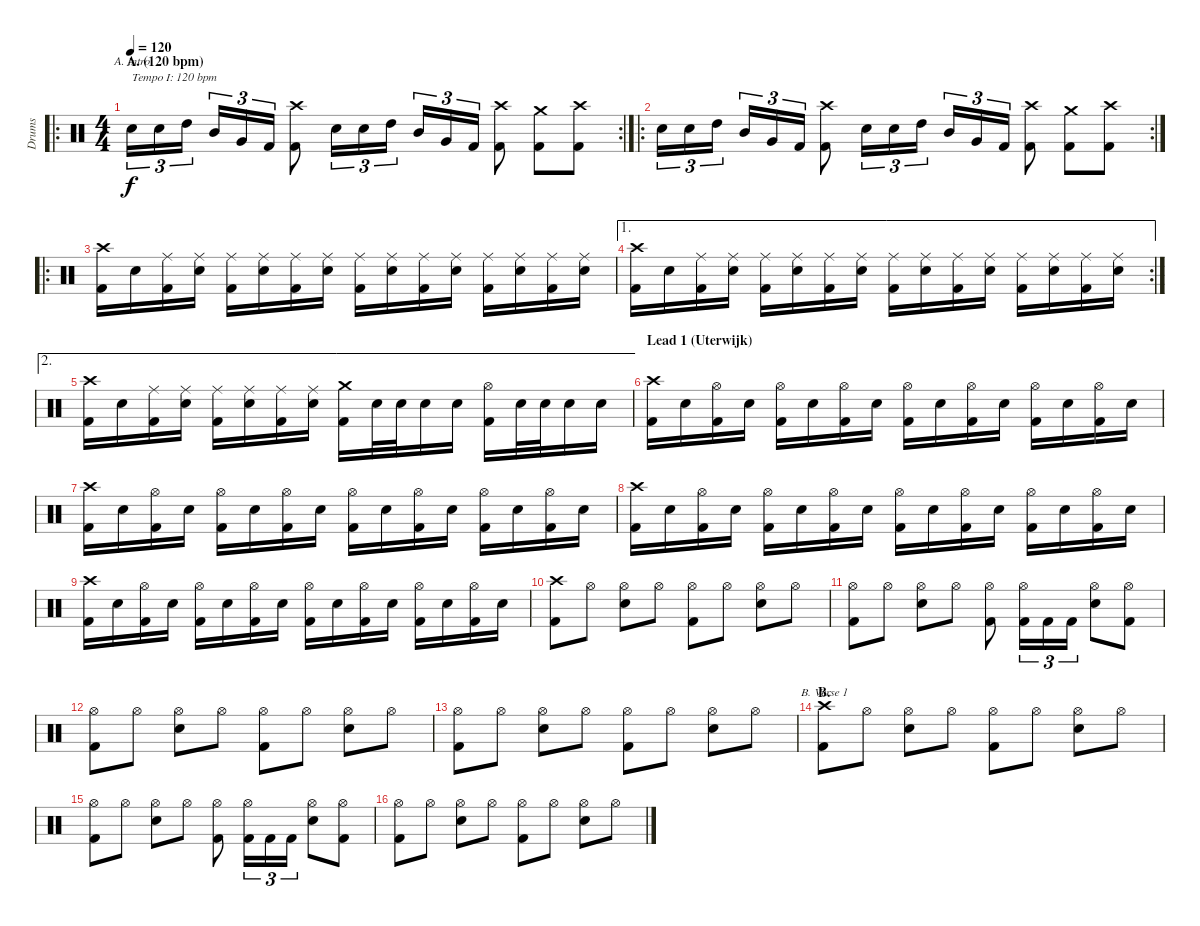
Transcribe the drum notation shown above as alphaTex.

\track ("Drums" "Drums") {instrument percussion}
\staff {score}
\articulation defaults
\chord ("A. Intro") {firstfret 0}
\chord ("B. Verse 1") {firstfret 0}
\ro
\rc 2
\ts (4 4)
\section ("" "A. (120 bpm)")
\tempo 120
\clef neutral
\ks c "Snare (hit) 2".16{tu (3 2) ch "A. Intro" txt "Tempo I: 120 bpm " dy f} "Snare (hit) 2".16{tu (3 2)} "High Tom (hit)".16{tu (3 2)} "Mid Tom (hit)".16{tu (3 2)} "Very Low Tom (hit)".16{tu (3 2)} "Kick (hit) 2".16{tu (3 2)}
("Crash high (hit)" "Kick (hit) 2").8 "Snare (hit) 2".16{tu (3 2)} "Snare (hit) 2".16{tu (3 2)} "High Tom (hit)".16{tu (3 2)} "Mid Tom (hit)".16{tu (3 2)} "Very Low Tom (hit)".16{tu (3 2)} "Kick (hit) 2".16{tu (3 2)} ("Crash high (hit)" "Kick (hit) 2").8 ("Crash medium (hit)" "Kick (hit) 2").8 ("Crash high (hit)" "Kick (hit) 2").8 |
\ro
\rc 2 "Snare (hit) 2".16{tu (3 2)} "Snare (hit) 2".16{tu (3 2)} "High Tom (hit)".16{tu (3 2)} "Mid Tom (hit)".16{tu (3 2)} "Very Low Tom (hit)".16{tu (3 2)} "Kick (hit) 2".16{tu (3 2)}
("Crash high (hit)" "Kick (hit) 2").8 "Snare (hit) 2".16{tu (3 2)} "Snare (hit) 2".16{tu (3 2)} "High Tom (hit)".16{tu (3 2)} "Mid Tom (hit)".16{tu (3 2)} "Very Low Tom (hit)".16{tu (3 2)} "Kick (hit) 2".16{tu (3 2)} ("Crash high (hit)" "Kick (hit) 2").8 ("Crash medium (hit)" "Kick (hit) 2").8 ("Crash high (hit)" "Kick (hit) 2").8 |
\ro
("Crash high (hit)" "Kick (hit) 2").16 "Snare (hit) 2".16 ("Ride (middle)" "Kick (hit) 2").16 ("Ride (middle)" "Snare (hit) 2").16 ("Ride (middle)" "Kick (hit) 2").16 ("Ride (middle)" "Snare (hit) 2").16 ("Ride (middle)" "Kick (hit) 2").16 ("Ride (middle)" "Snare (hit) 2").16 ("Ride (middle)" "Kick (hit) 2").16 ("Ride (middle)" "Snare (hit) 2").16 ("Ride (middle)" "Kick (hit) 2").16 ("Ride (middle)" "Snare (hit) 2").16 ("Ride (middle)" "Kick (hit) 2").16 ("Ride (middle)" "Snare (hit) 2").16 ("Ride (middle)" "Kick (hit) 2").16 ("Ride (middle)" "Snare (hit) 2").16 |
\ae 1
\rc 2
("Crash high (hit)" "Kick (hit) 2").16 "Snare (hit) 2".16 ("Ride (middle)" "Kick (hit) 2").16 ("Ride (middle)" "Snare (hit) 2").16 ("Ride (middle)" "Kick (hit) 2").16 ("Ride (middle)" "Snare (hit) 2").16 ("Ride (middle)" "Kick (hit) 2").16 ("Ride (middle)" "Snare (hit) 2").16 ("Ride (middle)" "Kick (hit) 2").16 ("Ride (middle)" "Snare (hit) 2").16 ("Ride (middle)" "Kick (hit) 2").16 ("Ride (middle)" "Snare (hit) 2").16 ("Ride (middle)" "Kick (hit) 2").16 ("Ride (middle)" "Snare (hit) 2").16 ("Ride (middle)" "Kick (hit) 2").16 ("Ride (middle)" "Snare (hit) 2").16 |
\ae 2
("Crash high (hit)" "Kick (hit) 2").16 "Snare (hit) 2".16 ("Ride (middle)" "Kick (hit) 2").16 ("Ride (middle)" "Snare (hit) 2").16 ("Ride (middle)" "Kick (hit) 2").16 ("Ride (middle)" "Snare (hit) 2").16 ("Ride (middle)" "Kick (hit) 2").16 ("Ride (middle)" "Snare (hit) 2").16 ("Crash medium (hit)" "Kick (hit) 2").16 "Snare (hit) 2".32 "Snare (hit) 2".32 "Snare (hit) 2".16 "Snare (hit) 2".16 ("Hi-Hat (open)" "Kick (hit) 2").16 "Snare (hit) 2".32 "Snare (hit) 2".32 "Snare (hit) 2".16 "Snare (hit) 2".16 |
\section ("" "Lead 1 (Uterwijk)")
("Crash high (hit)" "Kick (hit) 2").16 "Snare (hit) 2".16 ("Hi-Hat (open)" "Kick (hit) 2").16 "Snare (hit) 2".16 ("Hi-Hat (open)" "Kick (hit) 2").16 "Snare (hit) 2".16 ("Hi-Hat (open)" "Kick (hit) 2").16 "Snare (hit) 2".16 ("Hi-Hat (open)" "Kick (hit) 2").16 "Snare (hit) 2".16 ("Hi-Hat (open)" "Kick (hit) 2").16 "Snare (hit) 2".16 ("Hi-Hat (open)" "Kick (hit) 2").16 "Snare (hit) 2".16 ("Hi-Hat (open)" "Kick (hit) 2").16 "Snare (hit) 2".16 |
("Crash high (hit)" "Kick (hit) 2").16 "Snare (hit) 2".16 ("Hi-Hat (open)" "Kick (hit) 2").16 "Snare (hit) 2".16 ("Hi-Hat (open)" "Kick (hit) 2").16 "Snare (hit) 2".16 ("Hi-Hat (open)" "Kick (hit) 2").16 "Snare (hit) 2".16 ("Hi-Hat (open)" "Kick (hit) 2").16 "Snare (hit) 2".16 ("Hi-Hat (open)" "Kick (hit) 2").16 "Snare (hit) 2".16 ("Hi-Hat (open)" "Kick (hit) 2").16 "Snare (hit) 2".16 ("Hi-Hat (open)" "Kick (hit) 2").16 "Snare (hit) 2".16 |
("Crash high (hit)" "Kick (hit) 2").16 "Snare (hit) 2".16 ("Hi-Hat (open)" "Kick (hit) 2").16 "Snare (hit) 2".16 ("Hi-Hat (open)" "Kick (hit) 2").16 "Snare (hit) 2".16 ("Hi-Hat (open)" "Kick (hit) 2").16 "Snare (hit) 2".16 ("Hi-Hat (open)" "Kick (hit) 2").16 "Snare (hit) 2".16 ("Hi-Hat (open)" "Kick (hit) 2").16 "Snare (hit) 2".16 ("Hi-Hat (open)" "Kick (hit) 2").16 "Snare (hit) 2".16 ("Hi-Hat (open)" "Kick (hit) 2").16 "Snare (hit) 2".16 |
("Crash high (hit)" "Kick (hit) 2").16 "Snare (hit) 2".16 ("Hi-Hat (open)" "Kick (hit) 2").16 "Snare (hit) 2".16 ("Hi-Hat (open)" "Kick (hit) 2").16 "Snare (hit) 2".16 ("Hi-Hat (open)" "Kick (hit) 2").16 "Snare (hit) 2".16 ("Hi-Hat (open)" "Kick (hit) 2").16 "Snare (hit) 2".16 ("Hi-Hat (open)" "Kick (hit) 2").16 "Snare (hit) 2".16 ("Hi-Hat (open)" "Kick (hit) 2").16 "Snare (hit) 2".16 ("Hi-Hat (open)" "Kick (hit) 2").16 "Snare (hit) 2".16 |
("Crash high (hit)" "Kick (hit) 2").8 "Hi-Hat (open)".8 ("Hi-Hat (open)" "Snare (hit) 2").8 "Hi-Hat (open)".8 ("Hi-Hat (open)" "Kick (hit) 2").8 "Hi-Hat (open)".8 ("Hi-Hat (open)" "Snare (hit) 2").8 "Hi-Hat (open)".8 |
("Hi-Hat (open)" "Kick (hit) 2").8 "Hi-Hat (open)".8 ("Hi-Hat (open)" "Snare (hit) 2").8 "Hi-Hat (open)".8 ("Hi-Hat (open)" "Kick (hit) 2").8 ("Hi-Hat (open)" "Kick (hit) 2").16{tu (3 2)} "Kick (hit) 2".16{tu (3 2)} "Kick (hit) 2".16{tu (3 2)} ("Hi-Hat (open)" "Snare (hit) 2").8 ("Hi-Hat (open)" "Kick (hit) 2").8 |
("Hi-Hat (open)" "Kick (hit) 2").8 "Hi-Hat (open)".8 ("Hi-Hat (open)" "Snare (hit) 2").8 "Hi-Hat (open)".8 ("Hi-Hat (open)" "Kick (hit) 2").8 "Hi-Hat (open)".8 ("Hi-Hat (open)" "Snare (hit) 2").8 "Hi-Hat (open)".8 |
("Hi-Hat (open)" "Kick (hit) 2").8 "Hi-Hat (open)".8 ("Hi-Hat (open)" "Snare (hit) 2").8 "Hi-Hat (open)".8 ("Hi-Hat (open)" "Kick (hit) 2").8 "Hi-Hat (open)".8 ("Hi-Hat (open)" "Snare (hit) 2").8 "Hi-Hat (open)".8 |
\section ("" "B.")
("Crash high (hit)" "Kick (hit) 2").8{ch "B. Verse 1"} "Hi-Hat (open)".8 ("Hi-Hat (open)" "Snare (hit) 2").8 "Hi-Hat (open)".8 ("Hi-Hat (open)" "Kick (hit) 2").8 "Hi-Hat (open)".8 ("Hi-Hat (open)" "Snare (hit) 2").8 "Hi-Hat (open)".8 |
("Hi-Hat (open)" "Kick (hit) 2").8 "Hi-Hat (open)".8 ("Hi-Hat (open)" "Snare (hit) 2").8 "Hi-Hat (open)".8 ("Hi-Hat (open)" "Kick (hit) 2").8 ("Hi-Hat (open)" "Kick (hit) 2").16{tu (3 2)} "Kick (hit) 2".16{tu (3 2)} "Kick (hit) 2".16{tu (3 2)} ("Hi-Hat (open)" "Snare (hit) 2").8 ("Hi-Hat (open)" "Kick (hit) 2").8 |
("Hi-Hat (open)" "Kick (hit) 2").8 "Hi-Hat (open)".8 ("Hi-Hat (open)" "Snare (hit) 2").8 "Hi-Hat (open)".8 ("Hi-Hat (open)" "Kick (hit) 2").8 "Hi-Hat (open)".8 ("Hi-Hat (open)" "Snare (hit) 2").8 "Hi-Hat (open)".8
